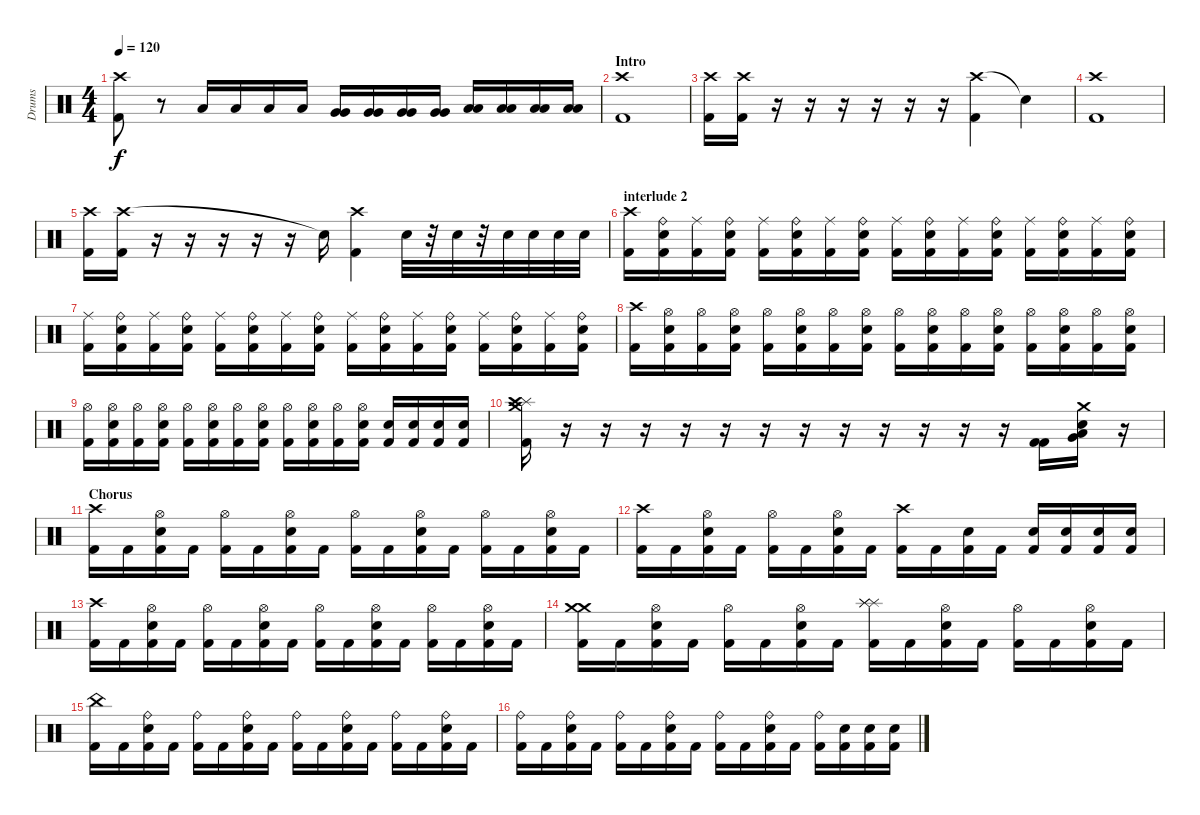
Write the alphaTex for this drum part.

\track ("Drums" "Drums") {instrument percussion}
\staff {score}
\articulation defaults
\ts (4 4)
\tempo 120
\clef neutral
\ks c
("Crash high (hit)" "Kick (hit) 2").8{dy f} r.8 "Low Tom (hit)".16 "Low Tom (hit)".16 "Low Tom (hit)".16 "Low Tom (hit)".16 ("Very Low Tom (hit)" "Very Low Tom (hit)").16 ("Very Low Tom (hit)" "Very Low Tom (hit)").16 ("Very Low Tom (hit)" "Very Low Tom (hit)").16 ("Very Low Tom (hit)" "Very Low Tom (hit)").16 ("Low Floor Tom (hit)" "Low Floor Tom (hit)").16 ("Low Floor Tom (hit)" "Low Floor Tom (hit)").16 ("Low Floor Tom (hit)" "Low Floor Tom (hit)").16 ("Low Floor Tom (hit)" "Low Floor Tom (hit)").16 |
\section ("" "Intro")
("Crash high (hit)" "Kick (hit) 2").1 |
("Crash high (hit)" "Kick (hit) 2").16 ("Crash high (hit)" "Kick (hit) 2").16 r.16 r.16 r.16 r.16 r.16 r.16 ("Crash high (hit)" "Kick (hit) 2").4 "Snare (hit)"{t}.4 |
("Crash high (hit)" "Kick (hit) 2").1 |
("Crash high (hit)" "Kick (hit) 2").16 ("Crash high (hit)" "Kick (hit) 2").16 r.16 r.16 r.16 r.16 r.16 "Snare (hit)"{t}.16 ("Crash high (hit)" "Kick (hit) 2").4 "Snare (hit) 2".32 r.32 "Snare (hit) 2".32 r.32 "Snare (hit) 2".32 "Snare (hit) 2".32 "Snare (hit) 2".32 "Snare (hit) 2".32 |
\section ("" "interlude 2")
("Crash high (hit)" "Kick (hit) 2").16 ("Ride (bell)" "Snare (hit) 2" "Kick (hit) 2").16 ("Ride (middle)" "Kick (hit) 2").16 ("Ride (bell)" "Snare (hit) 2" "Kick (hit) 2").16 ("Ride (middle)" "Kick (hit) 2").16 ("Ride (bell)" "Snare (hit) 2" "Kick (hit) 2").16 ("Ride (middle)" "Kick (hit) 2").16 ("Ride (bell)" "Snare (hit) 2" "Kick (hit) 2").16 ("Ride (middle)" "Kick (hit) 2").16 ("Ride (bell)" "Snare (hit) 2" "Kick (hit) 2").16 ("Ride (middle)" "Kick (hit) 2").16 ("Ride (bell)" "Snare (hit) 2" "Kick (hit) 2").16 ("Ride (middle)" "Kick (hit) 2").16 ("Ride (bell)" "Snare (hit) 2" "Kick (hit) 2").16 ("Ride (middle)" "Kick (hit) 2").16 ("Ride (bell)" "Snare (hit) 2" "Kick (hit) 2").16 |
("Ride (middle)" "Kick (hit) 2").16 ("Ride (bell)" "Snare (hit) 2" "Kick (hit) 2").16 ("Ride (middle)" "Kick (hit) 2").16 ("Ride (bell)" "Snare (hit) 2" "Kick (hit) 2").16 ("Ride (middle)" "Kick (hit) 2").16 ("Ride (bell)" "Snare (hit) 2" "Kick (hit) 2").16 ("Ride (middle)" "Kick (hit) 2").16 ("Ride (bell)" "Snare (hit) 2" "Kick (hit) 2").16 ("Ride (middle)" "Kick (hit) 2").16 ("Ride (bell)" "Snare (hit) 2" "Kick (hit) 2").16 ("Ride (middle)" "Kick (hit) 2").16 ("Ride (bell)" "Snare (hit) 2" "Kick (hit) 2").16 ("Ride (middle)" "Kick (hit) 2").16 ("Ride (bell)" "Snare (hit) 2" "Kick (hit) 2").16 ("Ride (middle)" "Kick (hit) 2").16 ("Ride (bell)" "Snare (hit) 2" "Kick (hit) 2").16 |
("Crash high (hit)" "Kick (hit) 2").16 ("Hi-Hat (open)" "Snare (hit) 2" "Kick (hit) 2").16 ("Hi-Hat (open)" "Kick (hit) 2").16 ("Hi-Hat (open)" "Snare (hit) 2" "Kick (hit) 2").16 ("Hi-Hat (open)" "Kick (hit) 2").16 ("Hi-Hat (open)" "Snare (hit) 2" "Kick (hit) 2").16 ("Hi-Hat (open)" "Kick (hit) 2").16 ("Hi-Hat (open)" "Snare (hit) 2" "Kick (hit) 2").16 ("Hi-Hat (open)" "Kick (hit) 2").16 ("Hi-Hat (open)" "Snare (hit) 2" "Kick (hit) 2").16 ("Hi-Hat (open)" "Kick (hit) 2").16 ("Hi-Hat (open)" "Snare (hit) 2" "Kick (hit) 2").16 ("Hi-Hat (open)" "Kick (hit) 2").16 ("Hi-Hat (open)" "Snare (hit) 2" "Kick (hit) 2").16 ("Hi-Hat (open)" "Kick (hit) 2").16 ("Hi-Hat (open)" "Snare (hit) 2" "Kick (hit) 2").16 |
("Hi-Hat (open)" "Kick (hit) 2").16 ("Hi-Hat (open)" "Snare (hit) 2" "Kick (hit) 2").16 ("Hi-Hat (open)" "Kick (hit) 2").16 ("Hi-Hat (open)" "Snare (hit) 2" "Kick (hit) 2").16 ("Hi-Hat (open)" "Kick (hit) 2").16 ("Hi-Hat (open)" "Snare (hit) 2" "Kick (hit) 2").16 ("Hi-Hat (open)" "Kick (hit) 2").16 ("Hi-Hat (open)" "Snare (hit) 2" "Kick (hit) 2").16 ("Hi-Hat (open)" "Kick (hit) 2").16 ("Hi-Hat (open)" "Snare (hit) 2" "Kick (hit) 2").16 ("Hi-Hat (open)" "Kick (hit) 2").16 ("Hi-Hat (open)" "Snare (hit) 2" "Kick (hit) 2").16 ("Snare (hit) 2" "Kick (hit) 2").16 ("Snare (hit) 2" "Kick (hit) 2").16 ("Snare (hit) 2" "Kick (hit) 2").16 ("Snare (hit) 2" "Kick (hit) 2").16 |
("Crash medium (hit)" "Splash (hit)" "Crash high (hit)" "Kick (hit) 2").16 r.16 r.16 r.16 r.16 r.16 r.16 r.16 r.16 r.16 r.16 r.16 r.16 ("Kick (hit) 2" "Kick (hit) 2").16 ("Crash medium (hit)" "Very Low Tom (hit)" "Low Tom (hit)" "Snare (hit) 2").16 r.16 |
\section ("" "Chorus")
("Crash high (hit)" "Kick (hit) 2").16 "Kick (hit) 2".16 ("Hi-Hat (open)" "Kick (hit) 2" "Electric Snare (hit)").16 "Kick (hit) 2".16 ("Hi-Hat (open)" "Kick (hit) 2").16 "Kick (hit) 2".16 ("Hi-Hat (open)" "Kick (hit) 2" "Electric Snare (hit)").16 "Kick (hit) 2".16 ("Hi-Hat (open)" "Kick (hit) 2").16 "Kick (hit) 2".16 ("Hi-Hat (open)" "Kick (hit) 2" "Electric Snare (hit)").16 "Kick (hit) 2".16 ("Hi-Hat (open)" "Kick (hit) 2").16 "Kick (hit) 2".16 ("Hi-Hat (open)" "Kick (hit) 2" "Electric Snare (hit)").16 "Kick (hit) 2".16 |
("Crash high (hit)" "Kick (hit) 2").16 "Kick (hit) 2".16 ("Hi-Hat (open)" "Kick (hit) 2" "Electric Snare (hit)").16 "Kick (hit) 2".16 ("Hi-Hat (open)" "Kick (hit) 2").16 "Kick (hit) 2".16 ("Hi-Hat (open)" "Kick (hit) 2" "Electric Snare (hit)").16 "Kick (hit) 2".16 ("Crash high (hit)" "Kick (hit) 2").16 "Kick (hit) 2".16 ("Kick (hit) 2" "Electric Snare (hit)").16 "Kick (hit) 2".16 ("Kick (hit) 2" "Electric Snare (hit)").16 ("Kick (hit) 2" "Electric Snare (hit)").16 ("Kick (hit) 2" "Electric Snare (hit)").16 ("Kick (hit) 2" "Electric Snare (hit)").16 |
("Crash high (hit)" "Kick (hit) 2").16 "Kick (hit) 2".16 ("Hi-Hat (open)" "Kick (hit) 2" "Electric Snare (hit)").16 "Kick (hit) 2".16 ("Hi-Hat (open)" "Kick (hit) 2").16 "Kick (hit) 2".16 ("Hi-Hat (open)" "Kick (hit) 2" "Electric Snare (hit)").16 "Kick (hit) 2".16 ("Hi-Hat (open)" "Kick (hit) 2").16 "Kick (hit) 2".16 ("Hi-Hat (open)" "Kick (hit) 2" "Electric Snare (hit)").16 "Kick (hit) 2".16 ("Hi-Hat (open)" "Kick (hit) 2").16 "Kick (hit) 2".16 ("Hi-Hat (open)" "Kick (hit) 2" "Electric Snare (hit)").16 "Kick (hit) 2".16 |
("Crash medium (hit)" "Crash medium (hit)" "Kick (hit) 2").16 "Kick (hit) 2".16 ("Hi-Hat (open)" "Kick (hit) 2" "Electric Snare (hit)").16 "Kick (hit) 2".16 ("Hi-Hat (open)" "Kick (hit) 2").16 "Kick (hit) 2".16 ("Hi-Hat (open)" "Kick (hit) 2" "Electric Snare (hit)").16 "Kick (hit) 2".16 ("Splash (hit)" "Splash (hit)" "Splash (hit)" "Kick (hit) 2").16 "Kick (hit) 2".16 ("Hi-Hat (open)" "Kick (hit) 2" "Electric Snare (hit)").16 "Kick (hit) 2".16 ("Hi-Hat (open)" "Kick (hit) 2").16 "Kick (hit) 2".16 ("Hi-Hat (open)" "Kick (hit) 2" "Electric Snare (hit)").16 "Kick (hit) 2".16 |
("China (hit)" "Kick (hit) 2").16 "Kick (hit) 2".16 ("Ride (bell)" "Kick (hit) 2" "Electric Snare (hit)").16 "Kick (hit) 2".16 ("Ride (bell)" "Kick (hit) 2").16 "Kick (hit) 2".16 ("Ride (bell)" "Kick (hit) 2" "Electric Snare (hit)").16 "Kick (hit) 2".16 ("Ride (bell)" "Kick (hit) 2").16 "Kick (hit) 2".16 ("Ride (bell)" "Kick (hit) 2" "Electric Snare (hit)").16 "Kick (hit) 2".16 ("Ride (bell)" "Kick (hit) 2").16 "Kick (hit) 2".16 ("Ride (bell)" "Kick (hit) 2" "Electric Snare (hit)").16 "Kick (hit) 2".16 |
("Ride (bell)" "Kick (hit) 2").16 "Kick (hit) 2".16 ("Ride (bell)" "Kick (hit) 2" "Electric Snare (hit)").16 "Kick (hit) 2".16 ("Ride (bell)" "Kick (hit) 2").16 "Kick (hit) 2".16 ("Ride (bell)" "Kick (hit) 2" "Electric Snare (hit)").16 "Kick (hit) 2".16 ("Ride (bell)" "Kick (hit) 2").16 "Kick (hit) 2".16 ("Ride (bell)" "Kick (hit) 2" "Electric Snare (hit)").16 "Kick (hit) 2".16 ("Ride (bell)" "Kick (hit) 2").16 ("Kick (hit) 2" "Electric Snare (hit)").16 ("Kick (hit) 2" "Electric Snare (hit)").16 ("Kick (hit) 2" "Electric Snare (hit)").16
